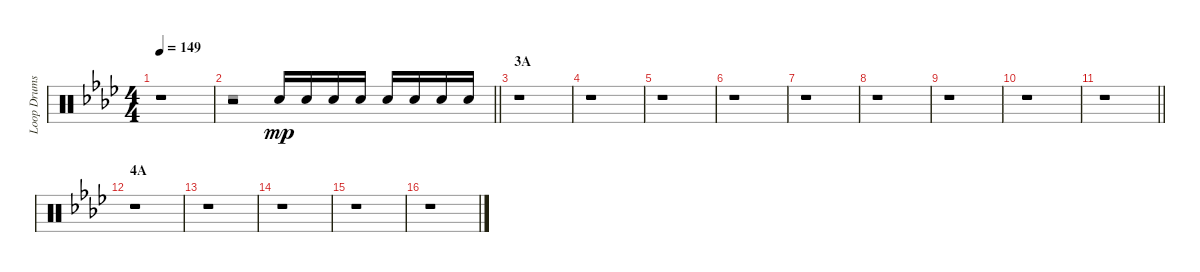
\track ("Loop Drums" "Loop Drums") {instrument percussion}
\staff {score}
\articulation defaults
\voice
\ts (4 4)
\tempo 149
\clef neutral
\ks ab
r.1{dy mp} |
\barLineRight lightlight
r.2 "Electric Snare (hit)".16 "Electric Snare (hit)".16 "Electric Snare (hit)".16 "Electric Snare (hit)".16 "Electric Snare (hit)".16 "Electric Snare (hit)".16 "Electric Snare (hit)".16 "Electric Snare (hit)".16 |
\section ("" "3A")
r.1 |
r.1 |
r.1 |
r.1 |
r.1 |
r.1 |
r.1 |
r.1 |
\barLineRight lightlight
r.1 |
\section ("" "4A")
r.1 |
r.1 |
r.1 |
r.1 |
r.1
\voice
\clef neutral
\ottava regular
\simile none
\ks ab
r.1{dy f} |
\barLineRight lightlight
r.1 |
r.1 |
r.1 |
r.1 |
r.1 |
r.1 |
r.1 |
r.1 |
r.1 |
\barLineRight lightlight
r.1 |
r.1 |
r.1 |
r.1 |
r.1 |
r.1
